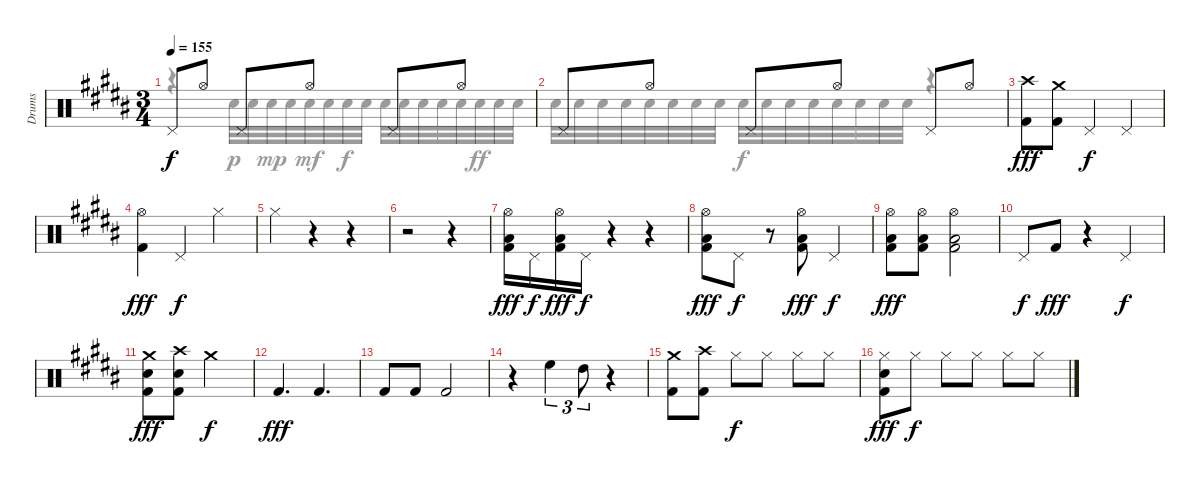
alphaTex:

\track ("Drums" "Drums") {instrument percussion}
\staff {score}
\articulation defaults
\voice
\ts (3 4)
\tempo 155
\clef neutral
\ks b "Pedal Hi-Hat (hit)".8{dy f} "Hi-Hat (open)".8 "Pedal Hi-Hat (hit)".8 "Hi-Hat (open)".8 "Pedal Hi-Hat (hit)".8 "Hi-Hat (open)".8
|
"Pedal Hi-Hat (hit)".8 "Hi-Hat (open)".8 "Pedal Hi-Hat (hit)".8 "Hi-Hat (open)".8 "Pedal Hi-Hat (hit)".8 "Hi-Hat (open)".8 |
("Crash high (hit)" "Kick (hit) 2").8{dy fff} ("Crash medium (hit)" "Kick (hit) 2").8 "Pedal Hi-Hat (hit)".4{dy f} "Pedal Hi-Hat (hit)".4 |
("Hi-Hat (open)" "Kick (hit) 2").4{dy fff} "Pedal Hi-Hat (hit)".4{dy f} "Hi-Hat (closed)".4 |
"Hi-Hat (closed)".4 r.4 r.4 |
r.2 r.4 |
("Hi-Hat (open)" "Low Tom (hit)" "Kick (hit) 2").16{dy fff} "Pedal Hi-Hat (hit)".16{dy f} ("Hi-Hat (open)" "Low Tom (hit)" "Kick (hit) 2").16{dy fff} "Pedal Hi-Hat (hit)".16{dy f} r.4 r.4 |
("Hi-Hat (open)" "Low Tom (hit)" "Kick (hit) 2").8{dy fff} "Pedal Hi-Hat (hit)".8{dy f} r.8 ("Hi-Hat (open)" "Low Tom (hit)" "Kick (hit) 2").8{dy fff} "Pedal Hi-Hat (hit)".4{dy f} |
("Hi-Hat (open)" "Low Tom (hit)" "Kick (hit) 2").8{dy fff} ("Hi-Hat (open)" "Low Tom (hit)" "Kick (hit) 2").8 ("Hi-Hat (open)" "Low Tom (hit)" "Kick (hit) 2").2 |
"Pedal Hi-Hat (hit)".8{dy f} "Kick (hit) 2".8{dy fff} r.4 "Pedal Hi-Hat (hit)".4{dy f} |
("Crash medium (hit)" "Snare (hit) 2" "Kick (hit) 2").8{dy fff} ("Crash high (hit)" "Snare (hit) 2" "Kick (hit) 2").8 "Crash medium (hit)".2{dy f} |
"Kick (hit) 2".4{d dy fff} "Kick (hit) 2".4{d} |
"Kick (hit) 2".8 "Kick (hit) 2".8 "Kick (hit) 2".2 |
r.4 "High Floor Tom (hit)".4{tu (3 2)} "High Tom (hit)".8{tu (3 2)} r.4 |
("Crash medium (hit)" "Kick (hit) 2").8 ("Crash high (hit)" "Kick (hit) 2").8 "Hi-Hat (closed)".8{dy f} "Hi-Hat (closed)".8 "Hi-Hat (closed)".8 "Hi-Hat (closed)".8 |
("Hi-Hat (closed)" "Snare (hit) 2" "Kick (hit) 2").8{dy fff} "Hi-Hat (closed)".8{dy f} "Hi-Hat (closed)".8 "Hi-Hat (closed)".8 "Hi-Hat (closed)".8 "Hi-Hat (closed)".8
\voice
\clef neutral
\ottava regular
\simile none
\ks b
r.4{dy f} "Snare (hit) 2".32{dy p} "Snare (hit) 2".32 "Snare (hit) 2".32{dy mp} "Snare (hit) 2".32 "Snare (hit) 2".32{dy mf} "Snare (hit) 2".32 "Snare (hit) 2".32{dy f} "Snare (hit) 2".32 "Snare (hit) 2".32 "Snare (hit) 2".32 "Snare (hit) 2".32 "Snare (hit) 2".32 "Snare (hit) 2".32 "Snare (hit) 2".32{dy ff} "Snare (hit) 2".32 "Snare (hit) 2".32 |
"Snare (hit) 2".32 "Snare (hit) 2".32 "Snare (hit) 2".32 "Snare (hit) 2".32 "Snare (hit) 2".32 "Snare (hit) 2".32 "Snare (hit) 2".32 "Snare (hit) 2".32 "Snare (hit) 2".32{dy f} "Snare (hit) 2".32 "Snare (hit) 2".32 "Snare (hit) 2".32 "Snare (hit) 2".32 "Snare (hit) 2".32 "Snare (hit) 2".32 "Snare (hit) 2".32 r.4 |
|
|
|
|
|
|
|
|
|
|
|
|
|
